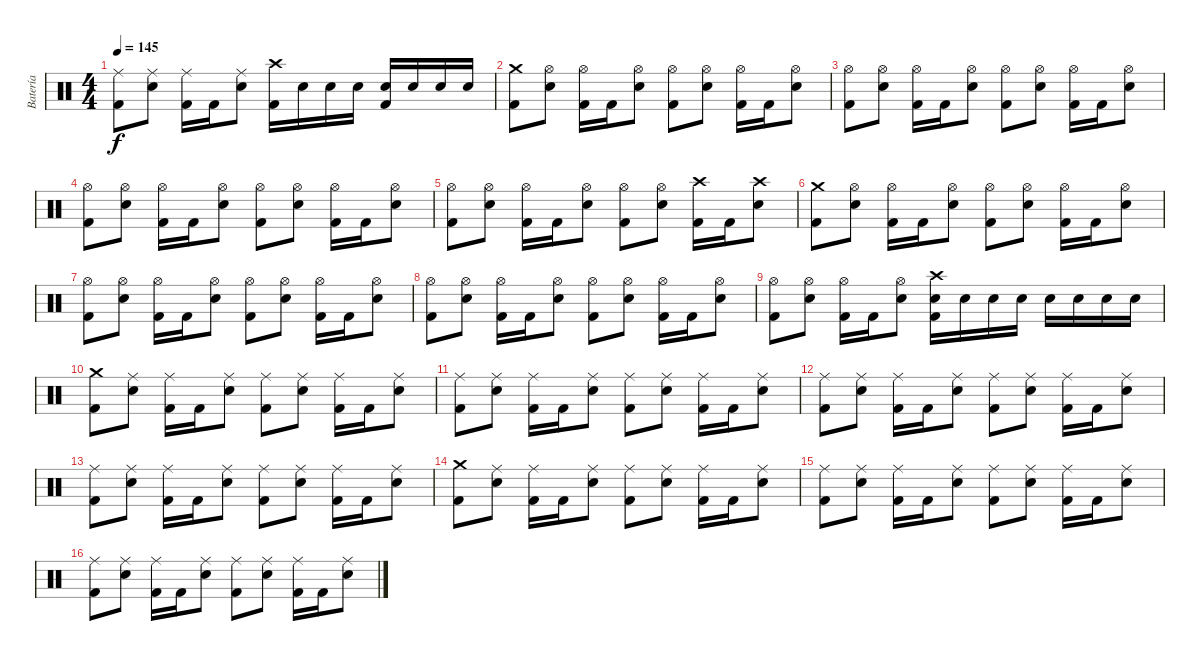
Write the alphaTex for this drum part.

\track ("Batería" "Batería") {instrument percussion}
\staff {score}
\articulation defaults
\ts (4 4)
\tempo 145
\clef neutral
\ks c
("Kick (hit) 2" "Ride (middle)").8{dy f} ("Electric Snare (hit)" "Ride (middle)").8 ("Kick (hit) 2" "Ride (middle)").16 "Kick (hit) 2".16 ("Electric Snare (hit)" "Ride (middle)").8 ("Kick (hit) 2" "Crash high (hit)").16 "Electric Snare (hit)".16 "Electric Snare (hit)".16 "Electric Snare (hit)".16 ("Kick (hit) 2" "Electric Snare (hit)").16 "Electric Snare (hit)".16 "Electric Snare (hit)".16 "Electric Snare (hit)".16 |
("Kick (hit) 2" "Crash medium (hit)").8 ("Electric Snare (hit)" "Hi-Hat (open)").8 ("Kick (hit) 2" "Hi-Hat (open)").16 "Kick (hit) 2".16 ("Electric Snare (hit)" "Hi-Hat (open)").8 ("Kick (hit) 2" "Hi-Hat (open)").8 ("Electric Snare (hit)" "Hi-Hat (open)").8 ("Kick (hit) 2" "Hi-Hat (open)").16 "Kick (hit) 2".16 ("Electric Snare (hit)" "Hi-Hat (open)").8 |
("Kick (hit) 2" "Hi-Hat (open)").8 ("Electric Snare (hit)" "Hi-Hat (open)").8 ("Kick (hit) 2" "Hi-Hat (open)").16 "Kick (hit) 2".16 ("Electric Snare (hit)" "Hi-Hat (open)").8 ("Kick (hit) 2" "Hi-Hat (open)").8 ("Electric Snare (hit)" "Hi-Hat (open)").8 ("Kick (hit) 2" "Hi-Hat (open)").16 "Kick (hit) 2".16 ("Electric Snare (hit)" "Hi-Hat (open)").8 |
("Kick (hit) 2" "Hi-Hat (open)").8 ("Electric Snare (hit)" "Hi-Hat (open)").8 ("Kick (hit) 2" "Hi-Hat (open)").16 "Kick (hit) 2".16 ("Electric Snare (hit)" "Hi-Hat (open)").8 ("Kick (hit) 2" "Hi-Hat (open)").8 ("Electric Snare (hit)" "Hi-Hat (open)").8 ("Kick (hit) 2" "Hi-Hat (open)").16 "Kick (hit) 2".16 ("Electric Snare (hit)" "Hi-Hat (open)").8 |
("Kick (hit) 2" "Hi-Hat (open)").8 ("Electric Snare (hit)" "Hi-Hat (open)").8 ("Kick (hit) 2" "Hi-Hat (open)").16 "Kick (hit) 2".16 ("Electric Snare (hit)" "Hi-Hat (open)").8 ("Kick (hit) 2" "Hi-Hat (open)").8 ("Electric Snare (hit)" "Hi-Hat (open)").8 ("Kick (hit) 2" "Crash high (hit)").16 "Kick (hit) 2".16 ("Electric Snare (hit)" "Crash high (hit)").8 |
("Kick (hit) 2" "Crash medium (hit)").8 ("Electric Snare (hit)" "Hi-Hat (open)").8 ("Kick (hit) 2" "Hi-Hat (open)").16 "Kick (hit) 2".16 ("Electric Snare (hit)" "Hi-Hat (open)").8 ("Kick (hit) 2" "Hi-Hat (open)").8 ("Electric Snare (hit)" "Hi-Hat (open)").8 ("Kick (hit) 2" "Hi-Hat (open)").16 "Kick (hit) 2".16 ("Electric Snare (hit)" "Hi-Hat (open)").8 |
("Kick (hit) 2" "Hi-Hat (open)").8 ("Electric Snare (hit)" "Hi-Hat (open)").8 ("Kick (hit) 2" "Hi-Hat (open)").16 "Kick (hit) 2".16 ("Electric Snare (hit)" "Hi-Hat (open)").8 ("Kick (hit) 2" "Hi-Hat (open)").8 ("Electric Snare (hit)" "Hi-Hat (open)").8 ("Kick (hit) 2" "Hi-Hat (open)").16 "Kick (hit) 2".16 ("Electric Snare (hit)" "Hi-Hat (open)").8 |
("Kick (hit) 2" "Hi-Hat (open)").8 ("Electric Snare (hit)" "Hi-Hat (open)").8 ("Kick (hit) 2" "Hi-Hat (open)").16 "Kick (hit) 2".16 ("Electric Snare (hit)" "Hi-Hat (open)").8 ("Kick (hit) 2" "Hi-Hat (open)").8 ("Electric Snare (hit)" "Hi-Hat (open)").8 ("Kick (hit) 2" "Hi-Hat (open)").16 "Kick (hit) 2".16 ("Electric Snare (hit)" "Hi-Hat (open)").8 |
("Kick (hit) 2" "Hi-Hat (open)").8 ("Electric Snare (hit)" "Hi-Hat (open)").8 ("Kick (hit) 2" "Hi-Hat (open)").16 "Kick (hit) 2".16 ("Electric Snare (hit)" "Hi-Hat (open)").8 ("Kick (hit) 2" "Electric Snare (hit)" "Crash high (hit)").16 "Electric Snare (hit)".16 "Electric Snare (hit)".16 "Electric Snare (hit)".16 "Electric Snare (hit)".16 "Electric Snare (hit)".16 "Electric Snare (hit)".16 "Electric Snare (hit)".16 |
("Kick (hit) 2" "Crash medium (hit)").8 ("Electric Snare (hit)" "Ride (middle)").8 ("Kick (hit) 2" "Ride (middle)").16 "Kick (hit) 2".16 ("Electric Snare (hit)" "Ride (middle)").8 ("Kick (hit) 2" "Ride (middle)").8 ("Electric Snare (hit)" "Ride (middle)").8 ("Kick (hit) 2" "Ride (middle)").16 "Kick (hit) 2".16 ("Electric Snare (hit)" "Ride (middle)").8 |
("Kick (hit) 2" "Ride (middle)").8 ("Electric Snare (hit)" "Ride (middle)").8 ("Kick (hit) 2" "Ride (middle)").16 "Kick (hit) 2".16 ("Electric Snare (hit)" "Ride (middle)").8 ("Kick (hit) 2" "Ride (middle)").8 ("Electric Snare (hit)" "Ride (middle)").8 ("Kick (hit) 2" "Ride (middle)").16 "Kick (hit) 2".16 ("Electric Snare (hit)" "Ride (middle)").8 |
("Kick (hit) 2" "Ride (middle)").8 ("Electric Snare (hit)" "Ride (middle)").8 ("Kick (hit) 2" "Ride (middle)").16 "Kick (hit) 2".16 ("Electric Snare (hit)" "Ride (middle)").8 ("Kick (hit) 2" "Ride (middle)").8 ("Electric Snare (hit)" "Ride (middle)").8 ("Kick (hit) 2" "Ride (middle)").16 "Kick (hit) 2".16 ("Electric Snare (hit)" "Ride (middle)").8 |
("Kick (hit) 2" "Ride (middle)").8 ("Electric Snare (hit)" "Ride (middle)").8 ("Kick (hit) 2" "Ride (middle)").16 "Kick (hit) 2".16 ("Electric Snare (hit)" "Ride (middle)").8 ("Kick (hit) 2" "Ride (middle)").8 ("Electric Snare (hit)" "Ride (middle)").8 ("Kick (hit) 2" "Ride (middle)").16 "Kick (hit) 2".16 ("Electric Snare (hit)" "Ride (middle)").8 |
("Kick (hit) 2" "Crash medium (hit)").8 ("Electric Snare (hit)" "Ride (middle)").8 ("Kick (hit) 2" "Ride (middle)").16 "Kick (hit) 2".16 ("Electric Snare (hit)" "Ride (middle)").8 ("Kick (hit) 2" "Ride (middle)").8 ("Electric Snare (hit)" "Ride (middle)").8 ("Kick (hit) 2" "Ride (middle)").16 "Kick (hit) 2".16 ("Electric Snare (hit)" "Ride (middle)").8 |
("Kick (hit) 2" "Ride (middle)").8 ("Electric Snare (hit)" "Ride (middle)").8 ("Kick (hit) 2" "Ride (middle)").16 "Kick (hit) 2".16 ("Electric Snare (hit)" "Ride (middle)").8 ("Kick (hit) 2" "Ride (middle)").8 ("Electric Snare (hit)" "Ride (middle)").8 ("Kick (hit) 2" "Ride (middle)").16 "Kick (hit) 2".16 ("Electric Snare (hit)" "Ride (middle)").8 |
("Kick (hit) 2" "Ride (middle)").8 ("Electric Snare (hit)" "Ride (middle)").8 ("Kick (hit) 2" "Ride (middle)").16 "Kick (hit) 2".16 ("Electric Snare (hit)" "Ride (middle)").8 ("Kick (hit) 2" "Ride (middle)").8 ("Electric Snare (hit)" "Ride (middle)").8 ("Kick (hit) 2" "Ride (middle)").16 "Kick (hit) 2".16 ("Electric Snare (hit)" "Ride (middle)").8
